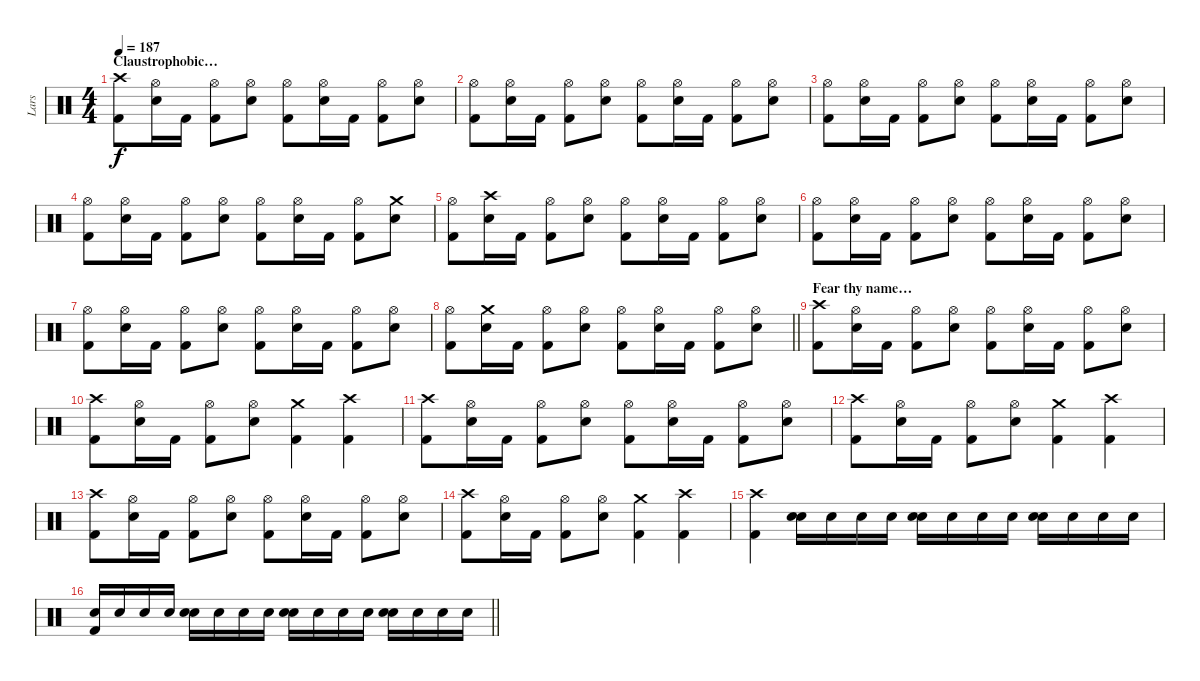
\track ("Lars" "Lars") {instrument percussion}
\staff {score}
\articulation defaults
\ts (4 4)
\section ("" "Claustrophobic…")
\tempo 187
\clef neutral
\ks c
("Crash high (hit)" "Kick (hit) 2").8{dy f} ("Hi-Hat (open)" "Snare (hit) 2").16 "Kick (hit) 2".16 ("Hi-Hat (open)" "Kick (hit) 2").8 ("Hi-Hat (open)" "Snare (hit) 2").8 ("Hi-Hat (open)" "Kick (hit) 2").8 ("Hi-Hat (open)" "Snare (hit) 2").16 "Kick (hit) 2".16 ("Hi-Hat (open)" "Kick (hit) 2").8 ("Hi-Hat (open)" "Snare (hit) 2").8 |
("Hi-Hat (open)" "Kick (hit) 2").8 ("Hi-Hat (open)" "Snare (hit) 2").16 "Kick (hit) 2".16 ("Hi-Hat (open)" "Kick (hit) 2").8 ("Hi-Hat (open)" "Snare (hit) 2").8 ("Hi-Hat (open)" "Kick (hit) 2").8 ("Hi-Hat (open)" "Snare (hit) 2").16 "Kick (hit) 2".16 ("Hi-Hat (open)" "Kick (hit) 2").8 ("Hi-Hat (open)" "Snare (hit) 2").8 |
("Hi-Hat (open)" "Kick (hit) 2").8 ("Hi-Hat (open)" "Snare (hit) 2").16 "Kick (hit) 2".16 ("Hi-Hat (open)" "Kick (hit) 2").8 ("Hi-Hat (open)" "Snare (hit) 2").8 ("Hi-Hat (open)" "Kick (hit) 2").8 ("Hi-Hat (open)" "Snare (hit) 2").16 "Kick (hit) 2".16 ("Hi-Hat (open)" "Kick (hit) 2").8 ("Hi-Hat (open)" "Snare (hit) 2").8 |
("Hi-Hat (open)" "Kick (hit) 2").8 ("Hi-Hat (open)" "Snare (hit) 2").16 "Kick (hit) 2".16 ("Hi-Hat (open)" "Kick (hit) 2").8 ("Hi-Hat (open)" "Snare (hit) 2").8 ("Hi-Hat (open)" "Kick (hit) 2").8 ("Hi-Hat (open)" "Snare (hit) 2").16 "Kick (hit) 2".16 ("Hi-Hat (open)" "Kick (hit) 2").8 ("Crash medium (hit)" "Snare (hit) 2").8 |
("Hi-Hat (open)" "Kick (hit) 2").8 ("Crash high (hit)" "Snare (hit) 2").16 "Kick (hit) 2".16 ("Hi-Hat (open)" "Kick (hit) 2").8 ("Hi-Hat (open)" "Snare (hit) 2").8 ("Hi-Hat (open)" "Kick (hit) 2").8 ("Hi-Hat (open)" "Snare (hit) 2").16 "Kick (hit) 2".16 ("Hi-Hat (open)" "Kick (hit) 2").8 ("Hi-Hat (open)" "Snare (hit) 2").8 |
("Hi-Hat (open)" "Kick (hit) 2").8 ("Hi-Hat (open)" "Snare (hit) 2").16 "Kick (hit) 2".16 ("Hi-Hat (open)" "Kick (hit) 2").8 ("Hi-Hat (open)" "Snare (hit) 2").8 ("Hi-Hat (open)" "Kick (hit) 2").8 ("Hi-Hat (open)" "Snare (hit) 2").16 "Kick (hit) 2".16 ("Hi-Hat (open)" "Kick (hit) 2").8 ("Hi-Hat (open)" "Snare (hit) 2").8 |
("Hi-Hat (open)" "Kick (hit) 2").8 ("Hi-Hat (open)" "Snare (hit) 2").16 "Kick (hit) 2".16 ("Hi-Hat (open)" "Kick (hit) 2").8 ("Hi-Hat (open)" "Snare (hit) 2").8 ("Hi-Hat (open)" "Kick (hit) 2").8 ("Hi-Hat (open)" "Snare (hit) 2").16 "Kick (hit) 2".16 ("Hi-Hat (open)" "Kick (hit) 2").8 ("Hi-Hat (open)" "Snare (hit) 2").8 |
\barLineRight lightlight
("Hi-Hat (open)" "Kick (hit) 2").8 ("Crash medium (hit)" "Snare (hit) 2").16 "Kick (hit) 2".16 ("Hi-Hat (open)" "Kick (hit) 2").8 ("Hi-Hat (open)" "Snare (hit) 2").8 ("Hi-Hat (open)" "Kick (hit) 2").8 ("Hi-Hat (open)" "Snare (hit) 2").16 "Kick (hit) 2".16 ("Hi-Hat (open)" "Kick (hit) 2").8 ("Hi-Hat (open)" "Snare (hit) 2").8 |
\section ("" "Fear thy name…")
("Crash high (hit)" "Kick (hit) 2").8 ("Hi-Hat (open)" "Snare (hit) 2").16 "Kick (hit) 2".16 ("Hi-Hat (open)" "Kick (hit) 2").8 ("Hi-Hat (open)" "Snare (hit) 2").8 ("Hi-Hat (open)" "Kick (hit) 2").8 ("Hi-Hat (open)" "Snare (hit) 2").16 "Kick (hit) 2".16 ("Hi-Hat (open)" "Kick (hit) 2").8 ("Hi-Hat (open)" "Snare (hit) 2").8 |
("Crash high (hit)" "Kick (hit) 2").8 ("Hi-Hat (open)" "Snare (hit) 2").16 "Kick (hit) 2".16 ("Hi-Hat (open)" "Kick (hit) 2").8 ("Hi-Hat (open)" "Snare (hit) 2").8 ("Crash medium (hit)" "Kick (hit) 2").4 ("Crash high (hit)" "Kick (hit) 2").4 |
("Crash high (hit)" "Kick (hit) 2").8 ("Hi-Hat (open)" "Snare (hit) 2").16 "Kick (hit) 2".16 ("Hi-Hat (open)" "Kick (hit) 2").8 ("Hi-Hat (open)" "Snare (hit) 2").8 ("Hi-Hat (open)" "Kick (hit) 2").8 ("Hi-Hat (open)" "Snare (hit) 2").16 "Kick (hit) 2".16 ("Hi-Hat (open)" "Kick (hit) 2").8 ("Hi-Hat (open)" "Snare (hit) 2").8 |
("Crash high (hit)" "Kick (hit) 2").8 ("Hi-Hat (open)" "Snare (hit) 2").16 "Kick (hit) 2".16 ("Hi-Hat (open)" "Kick (hit) 2").8 ("Hi-Hat (open)" "Snare (hit) 2").8 ("Crash medium (hit)" "Kick (hit) 2").4 ("Crash high (hit)" "Kick (hit) 2").4 |
("Crash high (hit)" "Kick (hit) 2").8 ("Hi-Hat (open)" "Snare (hit) 2").16 "Kick (hit) 2".16 ("Hi-Hat (open)" "Kick (hit) 2").8 ("Hi-Hat (open)" "Snare (hit) 2").8 ("Hi-Hat (open)" "Kick (hit) 2").8 ("Hi-Hat (open)" "Snare (hit) 2").16 "Kick (hit) 2".16 ("Hi-Hat (open)" "Kick (hit) 2").8 ("Hi-Hat (open)" "Snare (hit) 2").8 |
("Crash high (hit)" "Kick (hit) 2").8 ("Hi-Hat (open)" "Snare (hit) 2").16 "Kick (hit) 2".16 ("Hi-Hat (open)" "Kick (hit) 2").8 ("Hi-Hat (open)" "Snare (hit) 2").8 ("Crash medium (hit)" "Kick (hit) 2").4 ("Crash high (hit)" "Kick (hit) 2").4 |
("Crash high (hit)" "Kick (hit) 2").4 ("Electric Snare (hit)" "Snare (hit) 2").16 "Snare (hit) 2".16 "Snare (hit) 2".16 "Snare (hit) 2".16 ("Electric Snare (hit)" "Snare (hit) 2").16 "Snare (hit) 2".16 "Snare (hit) 2".16 "Snare (hit) 2".16 ("Electric Snare (hit)" "Snare (hit) 2").16 "Snare (hit) 2".16 "Snare (hit) 2".16 "Snare (hit) 2".16 |
\barLineRight lightlight
("Snare (hit) 2" "Kick (hit) 2").16 "Snare (hit) 2".16 "Snare (hit) 2".16 "Snare (hit) 2".16 ("Electric Snare (hit)" "Snare (hit) 2").16 "Snare (hit) 2".16 "Snare (hit) 2".16 "Snare (hit) 2".16 ("Electric Snare (hit)" "Snare (hit) 2").16 "Snare (hit) 2".16 "Snare (hit) 2".16 "Snare (hit) 2".16 ("Electric Snare (hit)" "Snare (hit) 2").16 "Snare (hit) 2".16 "Snare (hit) 2".16 "Snare (hit) 2".16
